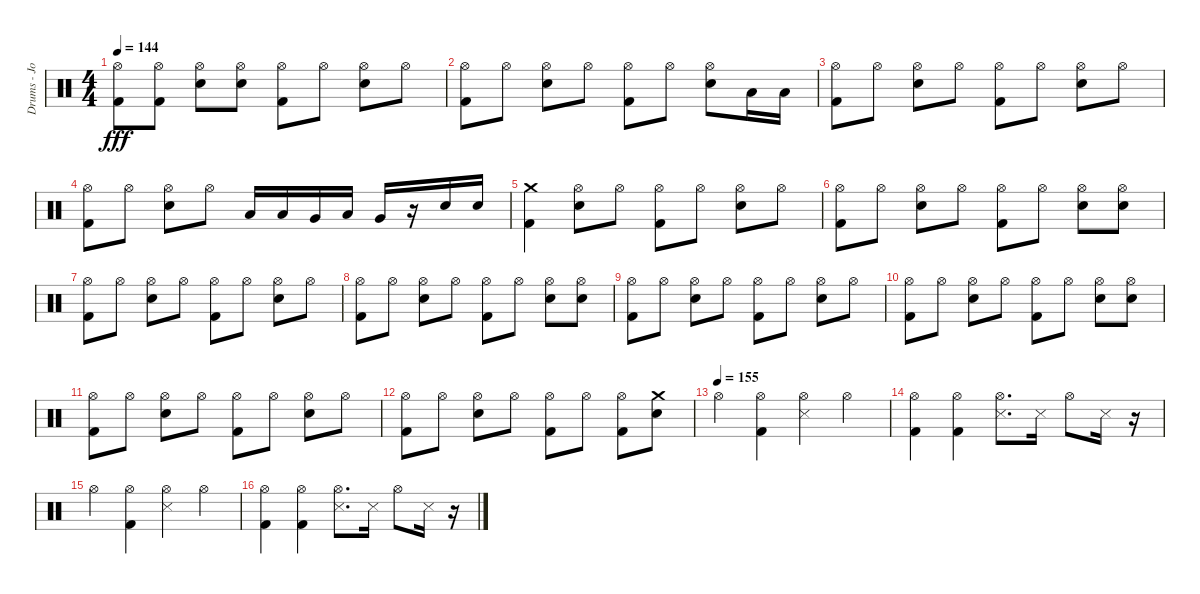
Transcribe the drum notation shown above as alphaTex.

\track ("Drums - Jord" "Drums - Jo") {instrument percussion}
\staff {score}
\articulation defaults
\ts (4 4)
\tempo 144
\clef neutral
\ks c
("Hi-Hat (open)" "Kick (hit) 2").8{dy fff} ("Hi-Hat (open)" "Kick (hit) 2").8 ("Hi-Hat (open)" "Electric Snare (hit)").8 ("Hi-Hat (open)" "Electric Snare (hit)").8 ("Hi-Hat (open)" "Kick (hit) 2").8 "Hi-Hat (open)".8 ("Hi-Hat (open)" "Electric Snare (hit)").8 "Hi-Hat (open)".8 |
("Hi-Hat (open)" "Kick (hit) 2").8 "Hi-Hat (open)".8 ("Hi-Hat (open)" "Electric Snare (hit)").8 "Hi-Hat (open)".8 ("Hi-Hat (open)" "Kick (hit) 2").8 "Hi-Hat (open)".8 ("Hi-Hat (open)" "Electric Snare (hit)").8 "Low Tom (hit)".16 "Low Tom (hit)".16 |
("Hi-Hat (open)" "Kick (hit) 2").8 "Hi-Hat (open)".8 ("Hi-Hat (open)" "Electric Snare (hit)").8 "Hi-Hat (open)".8 ("Hi-Hat (open)" "Kick (hit) 2").8 "Hi-Hat (open)".8 ("Hi-Hat (open)" "Electric Snare (hit)").8 "Hi-Hat (open)".8 |
("Hi-Hat (open)" "Kick (hit) 2").8 "Hi-Hat (open)".8 ("Hi-Hat (open)" "Electric Snare (hit)").8 "Hi-Hat (open)".8 "Low Tom (hit)".16 "Low Tom (hit)".16 "Very Low Tom (hit)".16 "Low Tom (hit)".16 "Very Low Tom (hit)".16 r.16 "Electric Snare (hit)".16 "Electric Snare (hit)".16 |
("Crash medium (hit)" "Kick (hit) 2").4 ("Hi-Hat (open)" "Electric Snare (hit)").8 "Hi-Hat (open)".8 ("Hi-Hat (open)" "Kick (hit) 2").8 "Hi-Hat (open)".8 ("Hi-Hat (open)" "Electric Snare (hit)").8 "Hi-Hat (open)".8 |
("Hi-Hat (open)" "Kick (hit) 2").8 "Hi-Hat (open)".8 ("Hi-Hat (open)" "Electric Snare (hit)").8 "Hi-Hat (open)".8 ("Hi-Hat (open)" "Kick (hit) 2").8 "Hi-Hat (open)".8 ("Hi-Hat (open)" "Electric Snare (hit)").8 ("Hi-Hat (open)" "Electric Snare (hit)").8 |
("Hi-Hat (open)" "Kick (hit) 2").8 "Hi-Hat (open)".8 ("Hi-Hat (open)" "Electric Snare (hit)").8 "Hi-Hat (open)".8 ("Hi-Hat (open)" "Kick (hit) 2").8 "Hi-Hat (open)".8 ("Hi-Hat (open)" "Electric Snare (hit)").8 "Hi-Hat (open)".8 |
("Hi-Hat (open)" "Kick (hit) 2").8 "Hi-Hat (open)".8 ("Hi-Hat (open)" "Electric Snare (hit)").8 "Hi-Hat (open)".8 ("Hi-Hat (open)" "Kick (hit) 2").8 "Hi-Hat (open)".8 ("Electric Snare (hit)" "Hi-Hat (open)").8 ("Electric Snare (hit)" "Hi-Hat (open)").8 |
("Kick (hit) 2" "Hi-Hat (open)").8 "Hi-Hat (open)".8 ("Hi-Hat (open)" "Electric Snare (hit)").8 "Hi-Hat (open)".8 ("Hi-Hat (open)" "Kick (hit) 2").8 "Hi-Hat (open)".8 ("Hi-Hat (open)" "Electric Snare (hit)").8 "Hi-Hat (open)".8 |
("Kick (hit) 2" "Hi-Hat (open)").8 "Hi-Hat (open)".8 ("Hi-Hat (open)" "Electric Snare (hit)").8 "Hi-Hat (open)".8 ("Hi-Hat (open)" "Kick (hit) 2").8 "Hi-Hat (open)".8 ("Hi-Hat (open)" "Electric Snare (hit)").8 ("Hi-Hat (open)" "Electric Snare (hit)").8 |
("Kick (hit) 2" "Hi-Hat (open)").8 "Hi-Hat (open)".8 ("Electric Snare (hit)" "Hi-Hat (open)").8 "Hi-Hat (open)".8 ("Kick (hit) 2" "Hi-Hat (open)").8 "Hi-Hat (open)".8 ("Electric Snare (hit)" "Hi-Hat (open)").8 "Hi-Hat (open)".8 |
("Kick (hit) 2" "Hi-Hat (open)").8 "Hi-Hat (open)".8 ("Electric Snare (hit)" "Hi-Hat (open)").8 "Hi-Hat (open)".8 ("Kick (hit) 2" "Hi-Hat (open)").8 "Hi-Hat (open)".8 ("Kick (hit) 2" "Hi-Hat (open)").8 ("Electric Snare (hit)" "Crash medium (hit)").8 |
\tempo (155)
"Hi-Hat (open)".4 ("Kick (hit) 2" "Hi-Hat (open)").4 ("Snare (side stick) 3" "Hi-Hat (open)").4 "Hi-Hat (open)".4 |
("Kick (hit) 2" "Hi-Hat (open)").4 ("Kick (hit) 2" "Hi-Hat (open)").4 ("Snare (side stick) 3" "Hi-Hat (open)").8{d} "Snare (side stick) 3".16 "Hi-Hat (open)".8 "Snare (side stick) 3".16 r.16 |
"Hi-Hat (open)".4 ("Kick (hit) 2" "Hi-Hat (open)").4 ("Snare (side stick) 3" "Hi-Hat (open)").4 "Hi-Hat (open)".4 |
("Kick (hit) 2" "Hi-Hat (open)").4 ("Kick (hit) 2" "Hi-Hat (open)").4 ("Snare (side stick) 3" "Hi-Hat (open)").8{d} "Snare (side stick) 3".16 "Hi-Hat (open)".8 "Snare (side stick) 3".16 r.16
